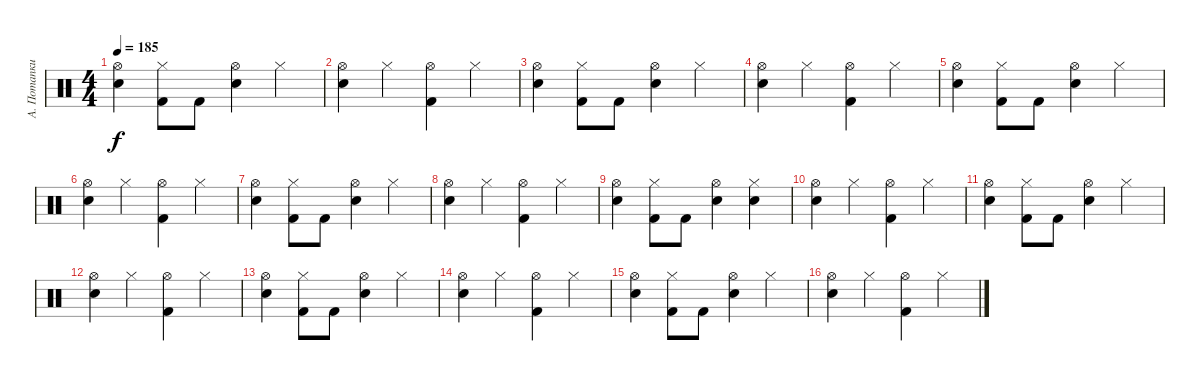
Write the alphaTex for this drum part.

\track ("А. Потапкин" "А. Потапки") {instrument percussion}
\staff {score}
\articulation defaults
\ts (4 4)
\tempo 185
\clef neutral
\ks c
("Hi-Hat (open)" "Snare (hit) 2").4{dy f} ("Hi-Hat (closed)" "Kick (hit) 2").8 "Kick (hit) 2".8 ("Hi-Hat (open)" "Snare (hit) 2").4 "Hi-Hat (closed)".4 |
("Hi-Hat (open)" "Snare (hit) 2").4 "Hi-Hat (closed)".4 ("Hi-Hat (open)" "Kick (hit) 2").4 "Hi-Hat (closed)".4 |
("Hi-Hat (open)" "Snare (hit) 2").4 ("Hi-Hat (closed)" "Kick (hit) 2").8 "Kick (hit) 2".8 ("Hi-Hat (open)" "Snare (hit) 2").4 "Hi-Hat (closed)".4 |
("Hi-Hat (open)" "Snare (hit) 2").4 "Hi-Hat (closed)".4 ("Hi-Hat (open)" "Kick (hit) 2").4 "Hi-Hat (closed)".4 |
("Hi-Hat (open)" "Snare (hit) 2").4 ("Hi-Hat (closed)" "Kick (hit) 2").8 "Kick (hit) 2".8 ("Hi-Hat (open)" "Snare (hit) 2").4 "Hi-Hat (closed)".4 |
("Hi-Hat (open)" "Snare (hit) 2").4 "Hi-Hat (closed)".4 ("Hi-Hat (open)" "Kick (hit) 2").4 "Hi-Hat (closed)".4 |
("Hi-Hat (open)" "Snare (hit) 2").4 ("Hi-Hat (closed)" "Kick (hit) 2").8 "Kick (hit) 2".8 ("Hi-Hat (open)" "Snare (hit) 2").4 "Hi-Hat (closed)".4 |
("Hi-Hat (open)" "Snare (hit) 2").4 "Hi-Hat (closed)".4 ("Hi-Hat (open)" "Kick (hit) 2").4 "Hi-Hat (closed)".4 |
("Hi-Hat (open)" "Snare (hit) 2").4 ("Hi-Hat (closed)" "Kick (hit) 2").8 "Kick (hit) 2".8 ("Hi-Hat (open)" "Snare (hit) 2").4 ("Hi-Hat (closed)" "Snare (hit) 2").4 |
("Hi-Hat (open)" "Snare (hit) 2").4 "Hi-Hat (closed)".4 ("Hi-Hat (open)" "Kick (hit) 2").4 "Hi-Hat (closed)".4 |
("Hi-Hat (open)" "Snare (hit) 2").4 ("Hi-Hat (closed)" "Kick (hit) 2").8 "Kick (hit) 2".8 ("Hi-Hat (open)" "Snare (hit) 2").4 "Hi-Hat (closed)".4 |
("Hi-Hat (open)" "Snare (hit) 2").4 "Hi-Hat (closed)".4 ("Hi-Hat (open)" "Kick (hit) 2").4 "Hi-Hat (closed)".4 |
("Hi-Hat (open)" "Snare (hit) 2").4 ("Hi-Hat (closed)" "Kick (hit) 2").8 "Kick (hit) 2".8 ("Hi-Hat (open)" "Snare (hit) 2").4 "Hi-Hat (closed)".4 |
("Hi-Hat (open)" "Snare (hit) 2").4 "Hi-Hat (closed)".4 ("Hi-Hat (open)" "Kick (hit) 2").4 "Hi-Hat (closed)".4 |
("Hi-Hat (open)" "Snare (hit) 2").4 ("Hi-Hat (closed)" "Kick (hit) 2").8 "Kick (hit) 2".8 ("Hi-Hat (open)" "Snare (hit) 2").4 "Hi-Hat (closed)".4 |
("Hi-Hat (open)" "Snare (hit) 2").4 "Hi-Hat (closed)".4 ("Hi-Hat (open)" "Kick (hit) 2").4 "Hi-Hat (closed)".4
